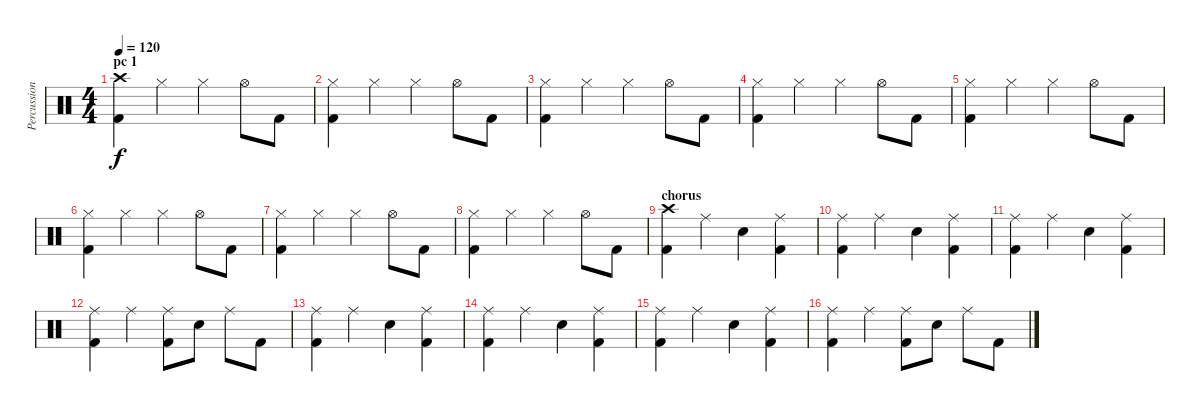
\track ("Percussion" "Percussion") {instrument percussion}
\staff {score}
\articulation defaults
\ts (4 4)
\section ("" "pc 1")
\tempo 120
\clef neutral
\ks c
("Crash high (hit)" "Kick (hit) 2").4{dy f} "Hi-Hat (closed)".4 "Hi-Hat (closed)".4 "Hi-Hat (open)".8 "Kick (hit) 2".8 |
("Hi-Hat (closed)" "Kick (hit) 2").4 "Hi-Hat (closed)".4 "Hi-Hat (closed)".4 "Hi-Hat (open)".8 "Kick (hit) 2".8 |
("Hi-Hat (closed)" "Kick (hit) 2").4 "Hi-Hat (closed)".4 "Hi-Hat (closed)".4 "Hi-Hat (open)".8 "Kick (hit) 2".8 |
("Hi-Hat (closed)" "Kick (hit) 2").4 "Hi-Hat (closed)".4 "Hi-Hat (closed)".4 "Hi-Hat (open)".8 "Kick (hit) 2".8 |
("Hi-Hat (closed)" "Kick (hit) 2").4 "Hi-Hat (closed)".4 "Hi-Hat (closed)".4 "Hi-Hat (open)".8 "Kick (hit) 2".8 |
("Hi-Hat (closed)" "Kick (hit) 2").4 "Hi-Hat (closed)".4 "Hi-Hat (closed)".4 "Hi-Hat (open)".8 "Kick (hit) 2".8 |
("Hi-Hat (closed)" "Kick (hit) 2").4 "Hi-Hat (closed)".4 "Hi-Hat (closed)".4 "Hi-Hat (open)".8 "Kick (hit) 2".8 |
("Hi-Hat (closed)" "Kick (hit) 2").4 "Hi-Hat (closed)".4 "Hi-Hat (closed)".4 "Hi-Hat (open)".8 "Kick (hit) 2".8 |
\section ("" "chorus")
("Crash high (hit)" "Kick (hit) 2").4 "Ride (middle)".4 "Snare (hit) 2".4 ("Ride (middle)" "Kick (hit) 2").4 |
("Ride (middle)" "Kick (hit) 2").4 "Ride (middle)".4 "Snare (hit) 2".4 ("Ride (middle)" "Kick (hit) 2").4 |
("Ride (middle)" "Kick (hit) 2").4 "Ride (middle)".4 "Snare (hit) 2".4 ("Ride (middle)" "Kick (hit) 2").4 |
("Ride (middle)" "Kick (hit) 2").4 "Ride (middle)".4 ("Ride (middle)" "Kick (hit) 2").8 "Snare (hit) 2".8 "Ride (middle)".8 "Kick (hit) 2".8 |
("Ride (middle)" "Kick (hit) 2").4 "Ride (middle)".4 "Snare (hit) 2".4 ("Ride (middle)" "Kick (hit) 2").4 |
("Ride (middle)" "Kick (hit) 2").4 "Ride (middle)".4 "Snare (hit) 2".4 ("Ride (middle)" "Kick (hit) 2").4 |
("Ride (middle)" "Kick (hit) 2").4 "Ride (middle)".4 "Snare (hit) 2".4 ("Ride (middle)" "Kick (hit) 2").4 |
("Ride (middle)" "Kick (hit) 2").4 "Ride (middle)".4 ("Ride (middle)" "Kick (hit) 2").8 "Snare (hit) 2".8 "Ride (middle)".8 "Kick (hit) 2".8
